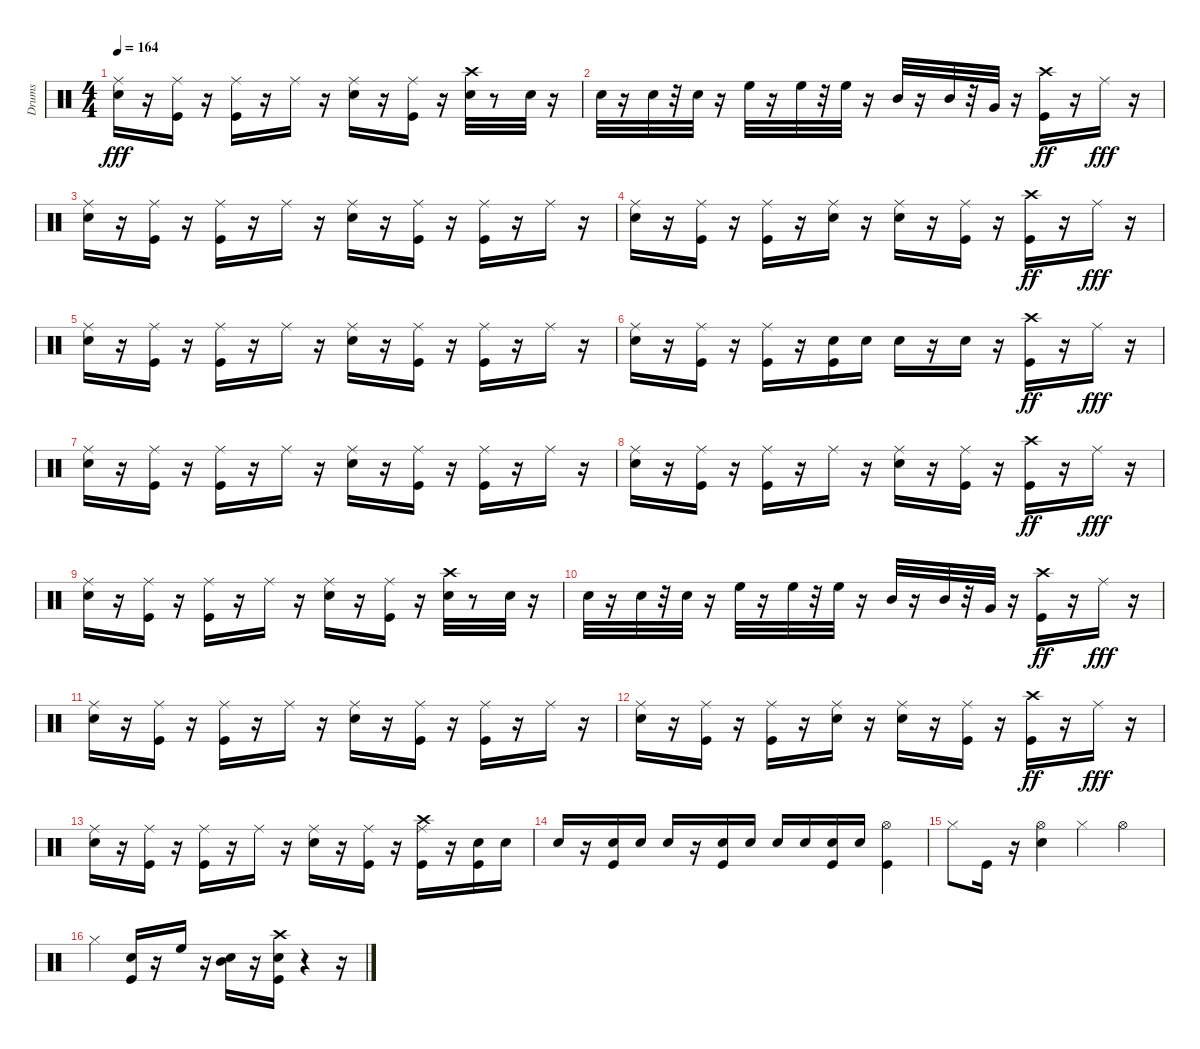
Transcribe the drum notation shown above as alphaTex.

\track ("Drums" "Drums") {instrument percussion}
\staff {score}
\articulation defaults
\ts (4 4)
\tempo 164
\clef neutral
\ks c
("Electric Snare (hit)" "Ride (middle)").16{dy fff} r.16 ("Kick (hit)" "Ride (middle)").16 r.16 ("Kick (hit)" "Ride (middle)").16 r.16 "Ride (middle)".16 r.16 ("Electric Snare (hit)" "Ride (middle)").16 r.16 ("Kick (hit)" "Ride (middle)").16 r.16 ("Electric Snare (hit)" "Crash high (hit)").32 r.8 "Electric Snare (hit)".32 r.16 |
"Electric Snare (hit)".32 r.16 "Electric Snare (hit)".32 r.32 "Electric Snare (hit)".32 r.16 "High Floor Tom (hit)".32 r.16 "High Floor Tom (hit)".32 r.32 "High Floor Tom (hit)".32 r.16 "Mid Tom (hit)".32 r.16 "Mid Tom (hit)".32 r.32 "Very Low Tom (hit)".32 r.16 ("Kick (hit)" "Crash high (hit)").16{dy ff} r.16 "Ride (middle)".16{dy fff} r.16 |
("Electric Snare (hit)" "Ride (middle)").16 r.16 ("Kick (hit)" "Ride (middle)").16 r.16 ("Kick (hit)" "Ride (middle)").16 r.16 "Ride (middle)".16 r.16 ("Electric Snare (hit)" "Ride (middle)").16 r.16 ("Kick (hit)" "Ride (middle)").16 r.16 ("Kick (hit)" "Ride (middle)").16 r.16 "Ride (middle)".16 r.16 |
("Electric Snare (hit)" "Ride (middle)").16 r.16 ("Kick (hit)" "Ride (middle)").16 r.16 ("Kick (hit)" "Ride (middle)").16 r.16 ("Ride (middle)" "Electric Snare (hit)").16 r.16 ("Ride (middle)" "Electric Snare (hit)").16 r.16 ("Kick (hit)" "Ride (middle)").16 r.16 ("Kick (hit)" "Crash high (hit)").16{dy ff} r.16 "Ride (middle)".16{dy fff} r.16 |
("Electric Snare (hit)" "Ride (middle)").16 r.16 ("Kick (hit)" "Ride (middle)").16 r.16 ("Kick (hit)" "Ride (middle)").16 r.16 "Ride (middle)".16 r.16 ("Electric Snare (hit)" "Ride (middle)").16 r.16 ("Kick (hit)" "Ride (middle)").16 r.16 ("Kick (hit)" "Ride (middle)").16 r.16 "Ride (middle)".16 r.16 |
("Electric Snare (hit)" "Ride (middle)").16 r.16 ("Kick (hit)" "Ride (middle)").16 r.16 ("Kick (hit)" "Ride (middle)").16 r.16 ("Electric Snare (hit)" "Kick (hit)").16 "Electric Snare (hit)".16 "Electric Snare (hit)".16 r.16 "Electric Snare (hit)".16 r.16 ("Kick (hit)" "Crash high (hit)").16{dy ff} r.16 "Ride (middle)".16{dy fff} r.16 |
("Electric Snare (hit)" "Ride (middle)").16 r.16 ("Kick (hit)" "Ride (middle)").16 r.16 ("Kick (hit)" "Ride (middle)").16 r.16 "Ride (middle)".16 r.16 ("Electric Snare (hit)" "Ride (middle)").16 r.16 ("Kick (hit)" "Ride (middle)").16 r.16 ("Kick (hit)" "Ride (middle)").16 r.16 "Ride (middle)".16 r.16 |
("Electric Snare (hit)" "Ride (middle)").16 r.16 ("Kick (hit)" "Ride (middle)").16 r.16 ("Kick (hit)" "Ride (middle)").16 r.16 "Ride (middle)".16 r.16 ("Ride (middle)" "Electric Snare (hit)").16 r.16 ("Kick (hit)" "Ride (middle)").16 r.16 ("Kick (hit)" "Crash high (hit)").16{dy ff} r.16 "Ride (middle)".16{dy fff} r.16 |
("Electric Snare (hit)" "Ride (middle)").16 r.16 ("Kick (hit)" "Ride (middle)").16 r.16 ("Kick (hit)" "Ride (middle)").16 r.16 "Ride (middle)".16 r.16 ("Electric Snare (hit)" "Ride (middle)").16 r.16 ("Kick (hit)" "Ride (middle)").16 r.16 ("Electric Snare (hit)" "Crash high (hit)").32 r.8 "Electric Snare (hit)".32 r.16 |
"Electric Snare (hit)".32 r.16 "Electric Snare (hit)".32 r.32 "Electric Snare (hit)".32 r.16 "High Floor Tom (hit)".32 r.16 "High Floor Tom (hit)".32 r.32 "High Floor Tom (hit)".32 r.16 "Mid Tom (hit)".32 r.16 "Mid Tom (hit)".32 r.32 "Very Low Tom (hit)".32 r.16 ("Kick (hit)" "Crash high (hit)").16{dy ff} r.16 "Ride (middle)".16{dy fff} r.16 |
("Electric Snare (hit)" "Ride (middle)").16 r.16 ("Kick (hit)" "Ride (middle)").16 r.16 ("Kick (hit)" "Ride (middle)").16 r.16 "Ride (middle)".16 r.16 ("Electric Snare (hit)" "Ride (middle)").16 r.16 ("Kick (hit)" "Ride (middle)").16 r.16 ("Kick (hit)" "Ride (middle)").16 r.16 "Ride (middle)".16 r.16 |
("Electric Snare (hit)" "Ride (middle)").16 r.16 ("Kick (hit)" "Ride (middle)").16 r.16 ("Kick (hit)" "Ride (middle)").16 r.16 ("Ride (middle)" "Electric Snare (hit)").16 r.16 ("Ride (middle)" "Electric Snare (hit)").16 r.16 ("Kick (hit)" "Ride (middle)").16 r.16 ("Kick (hit)" "Crash high (hit)").16{dy ff} r.16 "Ride (middle)".16{dy fff} r.16 |
("Electric Snare (hit)" "Ride (middle)").16 r.16 ("Kick (hit)" "Ride (middle)").16 r.16 ("Kick (hit)" "Ride (middle)").16 r.16 "Ride (middle)".16 r.16 ("Electric Snare (hit)" "Ride (middle)").16 r.16 ("Kick (hit)" "Ride (middle)").16 r.16 ("Kick (hit)" "Ride (middle)" "Crash high (hit)").16 r.16 ("Electric Snare (hit)" "Kick (hit)").16 "Electric Snare (hit)".16 |
"Electric Snare (hit)".16 r.16 ("Electric Snare (hit)" "Kick (hit)").16 "Electric Snare (hit)".16 "Electric Snare (hit)".16 r.16 ("Electric Snare (hit)" "Kick (hit)").16 "Electric Snare (hit)".16 "Electric Snare (hit)".16 "Electric Snare (hit)".16 ("Kick (hit)" "Electric Snare (hit)").16 "Electric Snare (hit)".16 ("Kick (hit)" "Hi-Hat (open)").4 |
"Hi-Hat (closed)".8 "Kick (hit)".16 r.16 ("Electric Snare (hit)" "Hi-Hat (open)").4 "Hi-Hat (closed)".4 "Hi-Hat (open)".4 |
"Hi-Hat (closed)".4 ("Electric Snare (hit)" "Kick (hit)").16 r.16 "High Floor Tom (hit)".16 r.16 ("Electric Snare (hit)" "Mid Tom (hit)").16 r.16 ("Electric Snare (hit)" "Kick (hit)" "Crash high (hit)").16 r.4 r.16
